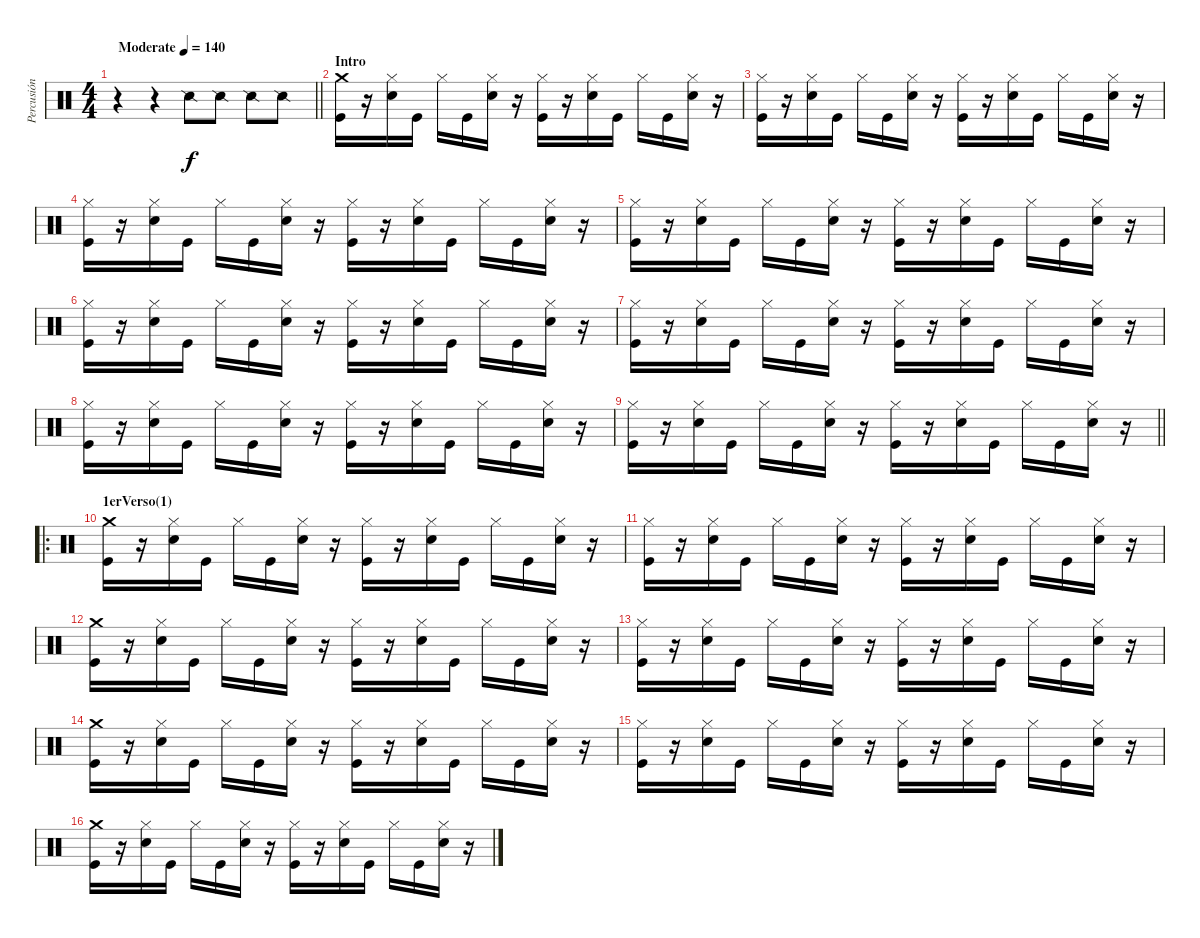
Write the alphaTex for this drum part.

\track ("Percusión" "Percusión") {instrument percussion}
\staff {score}
\articulation defaults
\ts (4 4)
\tempo (140 "Moderate")
\clef neutral
\barLineRight lightlight
\ks c
r.4{dy f} r.4 "Snare (side stick) 2".8 "Snare (side stick) 2".8 "Snare (side stick) 2".8 "Snare (side stick) 2".8 |
\section ("" "Intro")
("Crash medium (hit)" "Kick (hit)").16 r.16 ("Hi-Hat (closed)" "Snare (hit) 2").16 "Kick (hit)".16 "Hi-Hat (closed)".16 "Kick (hit)".16 ("Hi-Hat (closed)" "Snare (hit) 2").16 r.16 ("Hi-Hat (closed)" "Kick (hit)").16 r.16 ("Hi-Hat (closed)" "Snare (hit) 2").16 "Kick (hit)".16 "Hi-Hat (closed)".16 "Kick (hit)".16 ("Hi-Hat (closed)" "Snare (hit) 2").16 r.16 |
("Hi-Hat (closed)" "Kick (hit)").16 r.16 ("Hi-Hat (closed)" "Snare (hit) 2").16 "Kick (hit)".16 "Hi-Hat (closed)".16 "Kick (hit)".16 ("Hi-Hat (closed)" "Snare (hit) 2").16 r.16 ("Hi-Hat (closed)" "Kick (hit)").16 r.16 ("Hi-Hat (closed)" "Snare (hit) 2").16 "Kick (hit)".16 "Hi-Hat (closed)".16 "Kick (hit)".16 ("Hi-Hat (closed)" "Snare (hit) 2").16 r.16 |
("Hi-Hat (closed)" "Kick (hit)").16 r.16 ("Hi-Hat (closed)" "Snare (hit) 2").16 "Kick (hit)".16 "Hi-Hat (closed)".16 "Kick (hit)".16 ("Hi-Hat (closed)" "Snare (hit) 2").16 r.16 ("Hi-Hat (closed)" "Kick (hit)").16 r.16 ("Hi-Hat (closed)" "Snare (hit) 2").16 "Kick (hit)".16 "Hi-Hat (closed)".16 "Kick (hit)".16 ("Hi-Hat (closed)" "Snare (hit) 2").16 r.16 |
("Hi-Hat (closed)" "Kick (hit)").16 r.16 ("Hi-Hat (closed)" "Snare (hit) 2").16 "Kick (hit)".16 "Hi-Hat (closed)".16 "Kick (hit)".16 ("Hi-Hat (closed)" "Snare (hit) 2").16 r.16 ("Hi-Hat (closed)" "Kick (hit)").16 r.16 ("Hi-Hat (closed)" "Snare (hit) 2").16 "Kick (hit)".16 "Hi-Hat (closed)".16 "Kick (hit)".16 ("Hi-Hat (closed)" "Snare (hit) 2").16 r.16 |
("Hi-Hat (closed)" "Kick (hit)").16 r.16 ("Hi-Hat (closed)" "Snare (hit) 2").16 "Kick (hit)".16 "Hi-Hat (closed)".16 "Kick (hit)".16 ("Hi-Hat (closed)" "Snare (hit) 2").16 r.16 ("Hi-Hat (closed)" "Kick (hit)").16 r.16 ("Hi-Hat (closed)" "Snare (hit) 2").16 "Kick (hit)".16 "Hi-Hat (closed)".16 "Kick (hit)".16 ("Hi-Hat (closed)" "Snare (hit) 2").16 r.16 |
("Hi-Hat (closed)" "Kick (hit)").16 r.16 ("Hi-Hat (closed)" "Snare (hit) 2").16 "Kick (hit)".16 "Hi-Hat (closed)".16 "Kick (hit)".16 ("Hi-Hat (closed)" "Snare (hit) 2").16 r.16 ("Hi-Hat (closed)" "Kick (hit)").16 r.16 ("Hi-Hat (closed)" "Snare (hit) 2").16 "Kick (hit)".16 "Hi-Hat (closed)".16 "Kick (hit)".16 ("Hi-Hat (closed)" "Snare (hit) 2").16 r.16 |
("Hi-Hat (closed)" "Kick (hit)").16 r.16 ("Hi-Hat (closed)" "Snare (hit) 2").16 "Kick (hit)".16 "Hi-Hat (closed)".16 "Kick (hit)".16 ("Hi-Hat (closed)" "Snare (hit) 2").16 r.16 ("Hi-Hat (closed)" "Kick (hit)").16 r.16 ("Hi-Hat (closed)" "Snare (hit) 2").16 "Kick (hit)".16 "Hi-Hat (closed)".16 "Kick (hit)".16 ("Hi-Hat (closed)" "Snare (hit) 2").16 r.16 |
\barLineRight lightlight
("Hi-Hat (closed)" "Kick (hit)").16 r.16 ("Hi-Hat (closed)" "Snare (hit) 2").16 "Kick (hit)".16 "Hi-Hat (closed)".16 "Kick (hit)".16 ("Hi-Hat (closed)" "Snare (hit) 2").16 r.16 ("Hi-Hat (closed)" "Kick (hit)").16 r.16 ("Hi-Hat (closed)" "Snare (hit) 2").16 "Kick (hit)".16 "Hi-Hat (closed)".16 "Kick (hit)".16 ("Hi-Hat (closed)" "Snare (hit) 2").16 r.16 |
\ro
\section ("" "1erVerso(1)")
("Crash medium (hit)" "Kick (hit)").16 r.16 ("Hi-Hat (closed)" "Snare (hit) 2").16 "Kick (hit)".16 "Hi-Hat (closed)".16 "Kick (hit)".16 ("Hi-Hat (closed)" "Snare (hit) 2").16 r.16 ("Hi-Hat (closed)" "Kick (hit)").16 r.16 ("Hi-Hat (closed)" "Snare (hit) 2").16 "Kick (hit)".16 "Hi-Hat (closed)".16 "Kick (hit)".16 ("Hi-Hat (closed)" "Snare (hit) 2").16 r.16 |
("Hi-Hat (closed)" "Kick (hit)").16 r.16 ("Hi-Hat (closed)" "Snare (hit) 2").16 "Kick (hit)".16 "Hi-Hat (closed)".16 "Kick (hit)".16 ("Hi-Hat (closed)" "Snare (hit) 2").16 r.16 ("Hi-Hat (closed)" "Kick (hit)").16 r.16 ("Hi-Hat (closed)" "Snare (hit) 2").16 "Kick (hit)".16 "Hi-Hat (closed)".16 "Kick (hit)".16 ("Hi-Hat (closed)" "Snare (hit) 2").16 r.16 |
("Crash medium (hit)" "Kick (hit)").16 r.16 ("Hi-Hat (closed)" "Snare (hit) 2").16 "Kick (hit)".16 "Hi-Hat (closed)".16 "Kick (hit)".16 ("Hi-Hat (closed)" "Snare (hit) 2").16 r.16 ("Hi-Hat (closed)" "Kick (hit)").16 r.16 ("Hi-Hat (closed)" "Snare (hit) 2").16 "Kick (hit)".16 "Hi-Hat (closed)".16 "Kick (hit)".16 ("Hi-Hat (closed)" "Snare (hit) 2").16 r.16 |
("Hi-Hat (closed)" "Kick (hit)").16 r.16 ("Hi-Hat (closed)" "Snare (hit) 2").16 "Kick (hit)".16 "Hi-Hat (closed)".16 "Kick (hit)".16 ("Hi-Hat (closed)" "Snare (hit) 2").16 r.16 ("Hi-Hat (closed)" "Kick (hit)").16 r.16 ("Hi-Hat (closed)" "Snare (hit) 2").16 "Kick (hit)".16 "Hi-Hat (closed)".16 "Kick (hit)".16 ("Hi-Hat (closed)" "Snare (hit) 2").16 r.16 |
("Crash medium (hit)" "Kick (hit)").16 r.16 ("Hi-Hat (closed)" "Snare (hit) 2").16 "Kick (hit)".16 "Hi-Hat (closed)".16 "Kick (hit)".16 ("Hi-Hat (closed)" "Snare (hit) 2").16 r.16 ("Hi-Hat (closed)" "Kick (hit)").16 r.16 ("Hi-Hat (closed)" "Snare (hit) 2").16 "Kick (hit)".16 "Hi-Hat (closed)".16 "Kick (hit)".16 ("Hi-Hat (closed)" "Snare (hit) 2").16 r.16 |
("Hi-Hat (closed)" "Kick (hit)").16 r.16 ("Hi-Hat (closed)" "Snare (hit) 2").16 "Kick (hit)".16 "Hi-Hat (closed)".16 "Kick (hit)".16 ("Hi-Hat (closed)" "Snare (hit) 2").16 r.16 ("Hi-Hat (closed)" "Kick (hit)").16 r.16 ("Hi-Hat (closed)" "Snare (hit) 2").16 "Kick (hit)".16 "Hi-Hat (closed)".16 "Kick (hit)".16 ("Hi-Hat (closed)" "Snare (hit) 2").16 r.16 |
("Crash medium (hit)" "Kick (hit)").16 r.16 ("Hi-Hat (closed)" "Snare (hit) 2").16 "Kick (hit)".16 "Hi-Hat (closed)".16 "Kick (hit)".16 ("Hi-Hat (closed)" "Snare (hit) 2").16 r.16 ("Hi-Hat (closed)" "Kick (hit)").16 r.16 ("Hi-Hat (closed)" "Snare (hit) 2").16 "Kick (hit)".16 "Hi-Hat (closed)".16 "Kick (hit)".16 ("Hi-Hat (closed)" "Snare (hit) 2").16 r.16
